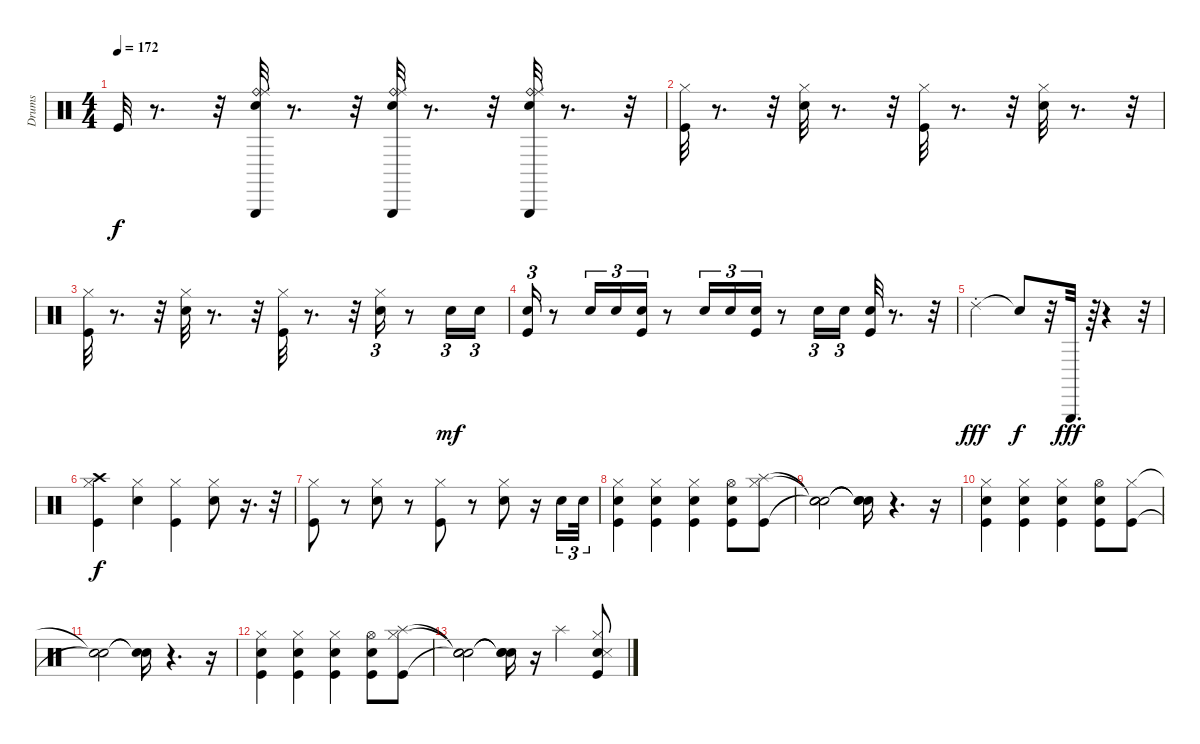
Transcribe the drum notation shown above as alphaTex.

\track ("Drums" "Drums") {instrument percussion}
\staff {score}
\articulation defaults
\ts (4 4)
\tempo 172
\clef neutral
\ks c "Kick (hit)".32{dy f}
r.8{d} r.32 ("Triangle (hit)" "Ride (bell)" "Ride (middle)" "Snare (hit) 2").32 r.8{d} r.32 ("Triangle (hit)" "Ride (bell)" "Ride (middle)" "Snare (hit) 2").32 r.8{d} r.32 ("Triangle (hit)" "Ride (bell)" "Ride (middle)" "Snare (hit) 2").32 r.8{d} r.32 |
("Hi-Hat (closed)" "Kick (hit)").32 r.8{d} r.32 ("Hi-Hat (closed)" "Snare (hit) 2").32 r.8{d} r.32 ("Hi-Hat (closed)" "Kick (hit)").32 r.8{d} r.32 ("Hi-Hat (closed)" "Snare (hit) 2").32 r.8{d} r.32 |
("Hi-Hat (closed)" "Kick (hit)").32 r.8{d} r.32 ("Hi-Hat (closed)" "Snare (hit) 2").32 r.8{d} r.32 ("Hi-Hat (closed)" "Kick (hit)").32 r.8{d} r.32 ("Hi-Hat (closed)" "Snare (hit) 2").16{tu (3 2)} r.8 "Snare (hit) 2".16{tu (3 2) dy mf} "Snare (hit) 2".16{tu (3 2)} |
("Kick (hit)" "Snare (hit) 2").16{tu (3 2)} r.8 "Snare (hit) 2".16{tu (3 2)} "Snare (hit) 2".16{tu (3 2)} ("Kick (hit)" "Snare (hit) 2").16{tu (3 2)} r.8 "Snare (hit) 2".16{tu (3 2)} "Snare (hit) 2".16{tu (3 2)} ("Kick (hit)" "Snare (hit) 2").16{tu (3 2)} r.8 "Snare (hit) 2".16{tu (3 2)} "Snare (hit) 2".16{tu (3 2)} ("Kick (hit)" "Snare (hit) 2").32 r.8{d} r.32 |
"Ride (choke) 2".2{dy fff} "Snare (hit)"{t}.8{dy f} r.32 "Triangle (hit)".32{d dy fff} r.64 r.4 r.32 |
("Hi-Hat (closed)" "Crash high (hit)" "Kick (hit)").4{dy f} ("Hi-Hat (closed)" "Snare (hit) 2").4 ("Hi-Hat (closed)" "Kick (hit)").4 ("Snare (hit) 2" "Hi-Hat (closed)").8 r.16{d} r.32 |
("Hi-Hat (closed)" "Kick (hit)").8 r.8 ("Hi-Hat (closed)" "Snare (hit) 2").8 r.8 ("Hi-Hat (closed)" "Kick (hit)").8 r.8 ("Hi-Hat (closed)" "Snare (hit) 2").8 r.16 "Snare (hit) 2".16{tu (3 2)} "Snare (hit) 2".32{tu (3 2)} |
("Hi-Hat (closed)" "Kick (hit)" "Snare (hit) 2").4 ("Snare (hit) 2" "Hi-Hat (closed)" "Kick (hit)").4 ("Snare (hit) 2" "Hi-Hat (closed)" "Kick (hit)").4 ("Snare (hit) 2" "Hi-Hat (open)" "Kick (hit)").8 ("Hi-Hat (closed)" "Splash (hit)" "Kick (hit)").8 |
("Snare (hit)"{t} "Snare (hit)"{t} "Snare (hit)"{t}).2 ("Snare (hit)"{t} "Snare (hit)"{t} "Snare (hit)"{t}).16 r.4{d} r.16 |
("Snare (hit) 2" "Hi-Hat (closed)" "Kick (hit)").4 ("Snare (hit) 2" "Hi-Hat (closed)" "Kick (hit)").4 ("Snare (hit) 2" "Hi-Hat (closed)" "Kick (hit)").4 ("Snare (hit) 2" "Hi-Hat (open)" "Kick (hit)").8 ("Hi-Hat (closed)" "Kick (hit)").8 |
("Snare (hit)"{t} "Snare (hit)"{t}).2 ("Snare (hit)"{t} "Snare (hit)"{t}).16 r.4{d} r.16 |
("Snare (hit) 2" "Hi-Hat (closed)" "Kick (hit)").4 ("Snare (hit) 2" "Hi-Hat (closed)" "Kick (hit)").4 ("Snare (hit) 2" "Hi-Hat (closed)" "Kick (hit)").4 ("Snare (hit) 2" "Hi-Hat (open)" "Kick (hit)").8 ("Hi-Hat (closed)" "Splash (hit)" "Kick (hit)").8 |
("Snare (hit)"{t} "Snare (hit)"{t} "Snare (hit)"{t}).2 ("Snare (hit)"{t} "Snare (hit)"{t} "Snare (hit)"{t}).16 r.16 "Splash (hit)".4 ("Snare (hit) 2" "Hi-Hat (closed)" "Metronome (hit)" "Kick (hit)").8
